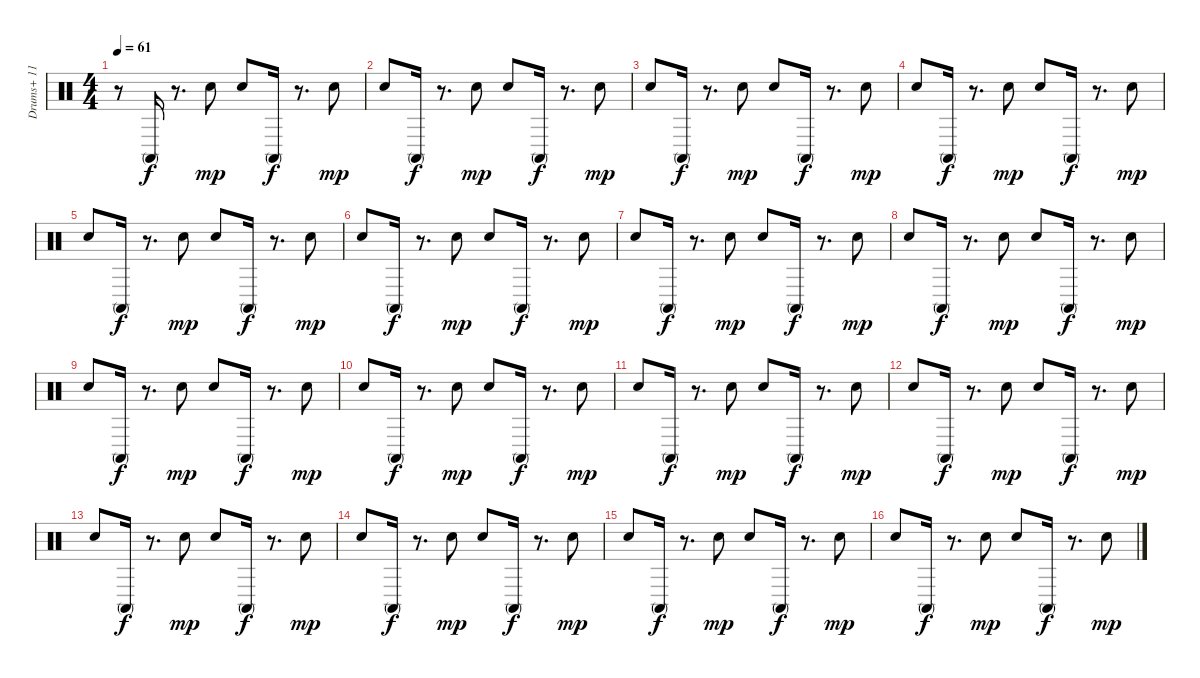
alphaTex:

\track ("Drums+ 11" "Drums+ 11") {instrument percussion}
\staff {score}
\articulation defaults
\ts (4 4)
\tempo 61
\clef neutral
\ks c
r.8{dy mp} "Conga high (mute)".16{dy f} r.8{d} "Hand Clap (hit)".8{dy mp} "Hand Clap (hit)".8 "Conga high (mute)".16{dy f} r.8{d} "Hand Clap (hit)".8{dy mp} |
"Hand Clap (hit)".8 "Conga high (mute)".16{dy f} r.8{d} "Hand Clap (hit)".8{dy mp} "Hand Clap (hit)".8 "Conga high (mute)".16{dy f} r.8{d} "Hand Clap (hit)".8{dy mp} |
"Hand Clap (hit)".8 "Conga high (mute)".16{dy f} r.8{d} "Hand Clap (hit)".8{dy mp} "Hand Clap (hit)".8 "Conga high (mute)".16{dy f} r.8{d} "Hand Clap (hit)".8{dy mp} |
"Hand Clap (hit)".8 "Conga high (mute)".16{dy f} r.8{d} "Hand Clap (hit)".8{dy mp} "Hand Clap (hit)".8 "Conga high (mute)".16{dy f} r.8{d} "Hand Clap (hit)".8{dy mp} |
"Hand Clap (hit)".8 "Conga high (mute)".16{dy f} r.8{d} "Hand Clap (hit)".8{dy mp} "Hand Clap (hit)".8 "Conga high (mute)".16{dy f} r.8{d} "Hand Clap (hit)".8{dy mp} |
"Hand Clap (hit)".8 "Conga high (mute)".16{dy f} r.8{d} "Hand Clap (hit)".8{dy mp} "Hand Clap (hit)".8 "Conga high (mute)".16{dy f} r.8{d} "Hand Clap (hit)".8{dy mp} |
"Hand Clap (hit)".8 "Conga high (mute)".16{dy f} r.8{d} "Hand Clap (hit)".8{dy mp} "Hand Clap (hit)".8 "Conga high (mute)".16{dy f} r.8{d} "Hand Clap (hit)".8{dy mp} |
"Hand Clap (hit)".8 "Conga high (mute)".16{dy f} r.8{d} "Hand Clap (hit)".8{dy mp} "Hand Clap (hit)".8 "Conga high (mute)".16{dy f} r.8{d} "Hand Clap (hit)".8{dy mp} |
"Hand Clap (hit)".8 "Conga high (mute)".16{dy f} r.8{d} "Hand Clap (hit)".8{dy mp} "Hand Clap (hit)".8 "Conga high (mute)".16{dy f} r.8{d} "Hand Clap (hit)".8{dy mp} |
"Hand Clap (hit)".8 "Conga high (mute)".16{dy f} r.8{d} "Hand Clap (hit)".8{dy mp} "Hand Clap (hit)".8 "Conga high (mute)".16{dy f} r.8{d} "Hand Clap (hit)".8{dy mp} |
"Hand Clap (hit)".8 "Conga high (mute)".16{dy f} r.8{d} "Hand Clap (hit)".8{dy mp} "Hand Clap (hit)".8 "Conga high (mute)".16{dy f} r.8{d} "Hand Clap (hit)".8{dy mp} |
"Hand Clap (hit)".8 "Conga high (mute)".16{dy f} r.8{d} "Hand Clap (hit)".8{dy mp} "Hand Clap (hit)".8 "Conga high (mute)".16{dy f} r.8{d} "Hand Clap (hit)".8{dy mp} |
"Hand Clap (hit)".8 "Conga high (mute)".16{dy f} r.8{d} "Hand Clap (hit)".8{dy mp} "Hand Clap (hit)".8 "Conga high (mute)".16{dy f} r.8{d} "Hand Clap (hit)".8{dy mp} |
"Hand Clap (hit)".8 "Conga high (mute)".16{dy f} r.8{d} "Hand Clap (hit)".8{dy mp} "Hand Clap (hit)".8 "Conga high (mute)".16{dy f} r.8{d} "Hand Clap (hit)".8{dy mp} |
"Hand Clap (hit)".8 "Conga high (mute)".16{dy f} r.8{d} "Hand Clap (hit)".8{dy mp} "Hand Clap (hit)".8 "Conga high (mute)".16{dy f} r.8{d} "Hand Clap (hit)".8{dy mp} |
"Hand Clap (hit)".8 "Conga high (mute)".16{dy f} r.8{d} "Hand Clap (hit)".8{dy mp} "Hand Clap (hit)".8 "Conga high (mute)".16{dy f} r.8{d} "Hand Clap (hit)".8{dy mp}
